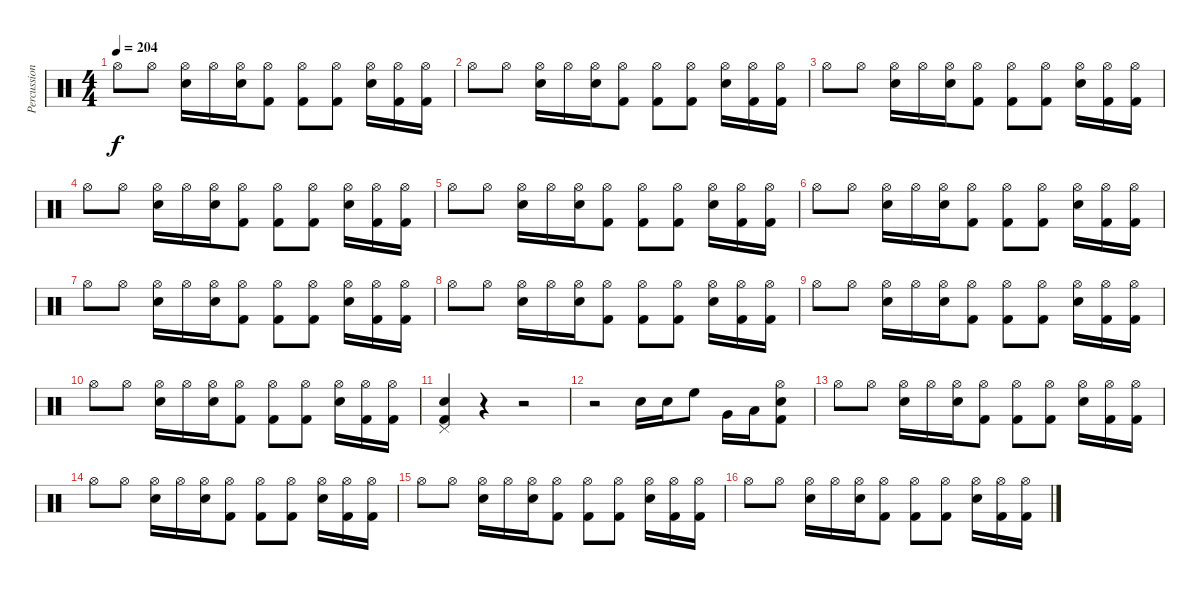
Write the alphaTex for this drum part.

\track ("Percussion" "Percussion") {instrument percussion}
\staff {score}
\articulation defaults
\ts (4 4)
\tempo 204
\clef neutral
\ks c "Hi-Hat (open)".8{dy f} "Hi-Hat (open)".8
("Hi-Hat (open)" "Snare (hit) 2").16 "Hi-Hat (open)".16 ("Hi-Hat (open)" "Snare (hit) 2").16 ("Hi-Hat (open)" "Kick (hit) 2").8 ("Hi-Hat (open)" "Kick (hit) 2").8 ("Hi-Hat (open)" "Kick (hit) 2").8 ("Hi-Hat (open)" "Snare (hit) 2").16 ("Hi-Hat (open)" "Kick (hit) 2").16 ("Hi-Hat (open)" "Kick (hit) 2").16 |
"Hi-Hat (open)".8 "Hi-Hat (open)".8 ("Hi-Hat (open)" "Snare (hit) 2").16 "Hi-Hat (open)".16 ("Hi-Hat (open)" "Snare (hit) 2").16 ("Hi-Hat (open)" "Kick (hit) 2").8 ("Hi-Hat (open)" "Kick (hit) 2").8 ("Hi-Hat (open)" "Kick (hit) 2").8 ("Hi-Hat (open)" "Snare (hit) 2").16 ("Hi-Hat (open)" "Kick (hit) 2").16 ("Hi-Hat (open)" "Kick (hit) 2").16 |
"Hi-Hat (open)".8 "Hi-Hat (open)".8 ("Hi-Hat (open)" "Snare (hit) 2").16 "Hi-Hat (open)".16 ("Hi-Hat (open)" "Snare (hit) 2").16 ("Hi-Hat (open)" "Kick (hit) 2").8 ("Hi-Hat (open)" "Kick (hit) 2").8 ("Hi-Hat (open)" "Kick (hit) 2").8 ("Hi-Hat (open)" "Snare (hit) 2").16 ("Hi-Hat (open)" "Kick (hit) 2").16 ("Hi-Hat (open)" "Kick (hit) 2").16 |
"Hi-Hat (open)".8 "Hi-Hat (open)".8 ("Hi-Hat (open)" "Snare (hit) 2").16 "Hi-Hat (open)".16 ("Hi-Hat (open)" "Snare (hit) 2").16 ("Hi-Hat (open)" "Kick (hit) 2").8 ("Hi-Hat (open)" "Kick (hit) 2").8 ("Hi-Hat (open)" "Kick (hit) 2").8 ("Hi-Hat (open)" "Snare (hit) 2").16 ("Hi-Hat (open)" "Kick (hit) 2").16 ("Hi-Hat (open)" "Kick (hit) 2").16 |
"Hi-Hat (open)".8 "Hi-Hat (open)".8 ("Hi-Hat (open)" "Snare (hit) 2").16 "Hi-Hat (open)".16 ("Hi-Hat (open)" "Snare (hit) 2").16 ("Hi-Hat (open)" "Kick (hit) 2").8 ("Hi-Hat (open)" "Kick (hit) 2").8 ("Hi-Hat (open)" "Kick (hit) 2").8 ("Hi-Hat (open)" "Snare (hit) 2").16 ("Hi-Hat (open)" "Kick (hit) 2").16 ("Hi-Hat (open)" "Kick (hit) 2").16 |
"Hi-Hat (open)".8 "Hi-Hat (open)".8 ("Hi-Hat (open)" "Snare (hit) 2").16 "Hi-Hat (open)".16 ("Hi-Hat (open)" "Snare (hit) 2").16 ("Hi-Hat (open)" "Kick (hit) 2").8 ("Hi-Hat (open)" "Kick (hit) 2").8 ("Hi-Hat (open)" "Kick (hit) 2").8 ("Hi-Hat (open)" "Snare (hit) 2").16 ("Hi-Hat (open)" "Kick (hit) 2").16 ("Hi-Hat (open)" "Kick (hit) 2").16 |
"Hi-Hat (open)".8 "Hi-Hat (open)".8 ("Hi-Hat (open)" "Snare (hit) 2").16 "Hi-Hat (open)".16 ("Hi-Hat (open)" "Snare (hit) 2").16 ("Hi-Hat (open)" "Kick (hit) 2").8 ("Hi-Hat (open)" "Kick (hit) 2").8 ("Hi-Hat (open)" "Kick (hit) 2").8 ("Hi-Hat (open)" "Snare (hit) 2").16 ("Hi-Hat (open)" "Kick (hit) 2").16 ("Hi-Hat (open)" "Kick (hit) 2").16 |
"Hi-Hat (open)".8 "Hi-Hat (open)".8 ("Hi-Hat (open)" "Snare (hit) 2").16 "Hi-Hat (open)".16 ("Hi-Hat (open)" "Snare (hit) 2").16 ("Hi-Hat (open)" "Kick (hit) 2").8 ("Hi-Hat (open)" "Kick (hit) 2").8 ("Hi-Hat (open)" "Kick (hit) 2").8 ("Hi-Hat (open)" "Snare (hit) 2").16 ("Hi-Hat (open)" "Kick (hit) 2").16 ("Hi-Hat (open)" "Kick (hit) 2").16 |
"Hi-Hat (open)".8 "Hi-Hat (open)".8 ("Hi-Hat (open)" "Snare (hit) 2").16 "Hi-Hat (open)".16 ("Hi-Hat (open)" "Snare (hit) 2").16 ("Hi-Hat (open)" "Kick (hit) 2").8 ("Hi-Hat (open)" "Kick (hit) 2").8 ("Hi-Hat (open)" "Kick (hit) 2").8 ("Hi-Hat (open)" "Snare (hit) 2").16 ("Hi-Hat (open)" "Kick (hit) 2").16 ("Hi-Hat (open)" "Kick (hit) 2").16 |
"Hi-Hat (open)".8 "Hi-Hat (open)".8 ("Hi-Hat (open)" "Snare (hit) 2").16 "Hi-Hat (open)".16 ("Hi-Hat (open)" "Snare (hit) 2").16 ("Hi-Hat (open)" "Kick (hit) 2").8 ("Hi-Hat (open)" "Kick (hit) 2").8 ("Hi-Hat (open)" "Kick (hit) 2").8 ("Hi-Hat (open)" "Snare (hit) 2").16 ("Hi-Hat (open)" "Kick (hit) 2").16 ("Hi-Hat (open)" "Kick (hit) 2").16 |
("Pedal Hi-Hat (hit)" "Snare (hit) 2" "Kick (hit) 2").4 r.4 r.2 |
r.2 "Snare (hit) 2".16 "Snare (hit) 2".16 "High Floor Tom (hit)".8 "Very Low Tom (hit)".16 "Low Tom (hit)".16 ("Hi-Hat (open)" "Snare (hit) 2" "Kick (hit) 2").8 |
"Hi-Hat (open)".8 "Hi-Hat (open)".8 ("Hi-Hat (open)" "Snare (hit) 2").16 "Hi-Hat (open)".16 ("Hi-Hat (open)" "Snare (hit) 2").16 ("Hi-Hat (open)" "Kick (hit) 2").8 ("Hi-Hat (open)" "Kick (hit) 2").8 ("Hi-Hat (open)" "Kick (hit) 2").8 ("Hi-Hat (open)" "Snare (hit) 2").16 ("Hi-Hat (open)" "Kick (hit) 2").16 ("Hi-Hat (open)" "Kick (hit) 2").16 |
"Hi-Hat (open)".8 "Hi-Hat (open)".8 ("Hi-Hat (open)" "Snare (hit) 2").16 "Hi-Hat (open)".16 ("Hi-Hat (open)" "Snare (hit) 2").16 ("Hi-Hat (open)" "Kick (hit) 2").8 ("Hi-Hat (open)" "Kick (hit) 2").8 ("Hi-Hat (open)" "Kick (hit) 2").8 ("Hi-Hat (open)" "Snare (hit) 2").16 ("Hi-Hat (open)" "Kick (hit) 2").16 ("Hi-Hat (open)" "Kick (hit) 2").16 |
"Hi-Hat (open)".8 "Hi-Hat (open)".8 ("Hi-Hat (open)" "Snare (hit) 2").16 "Hi-Hat (open)".16 ("Hi-Hat (open)" "Snare (hit) 2").16 ("Hi-Hat (open)" "Kick (hit) 2").8 ("Hi-Hat (open)" "Kick (hit) 2").8 ("Hi-Hat (open)" "Kick (hit) 2").8 ("Hi-Hat (open)" "Snare (hit) 2").16 ("Hi-Hat (open)" "Kick (hit) 2").16 ("Hi-Hat (open)" "Kick (hit) 2").16 |
"Hi-Hat (open)".8 "Hi-Hat (open)".8 ("Hi-Hat (open)" "Snare (hit) 2").16 "Hi-Hat (open)".16 ("Hi-Hat (open)" "Snare (hit) 2").16 ("Hi-Hat (open)" "Kick (hit) 2").8 ("Hi-Hat (open)" "Kick (hit) 2").8 ("Hi-Hat (open)" "Kick (hit) 2").8 ("Hi-Hat (open)" "Snare (hit) 2").16 ("Hi-Hat (open)" "Kick (hit) 2").16 ("Hi-Hat (open)" "Kick (hit) 2").16
